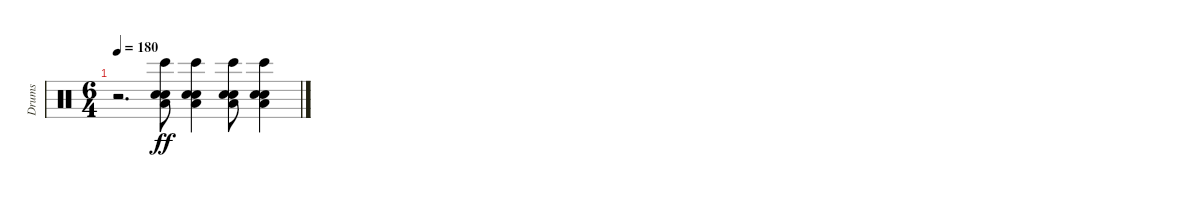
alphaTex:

\track ("Drums" "Drums") {instrument percussion}
\staff {score}
\articulation defaults
\ts (6 4)
\tempo 180
\clef neutral
\ks c
r.2{d dy ff} ("Electric Snare (hit)" "Electric Snare (hit)" "Bongo High (hit)" "Low Floor Tom (hit)").8 ("Electric Snare (hit)" "Electric Snare (hit)" "Bongo High (hit)" "Low Floor Tom (hit)").4 ("Electric Snare (hit)" "Electric Snare (hit)" "Bongo High (hit)" "Low Floor Tom (hit)").8 ("Electric Snare (hit)" "Electric Snare (hit)" "Bongo High (hit)" "Low Floor Tom (hit)").4
